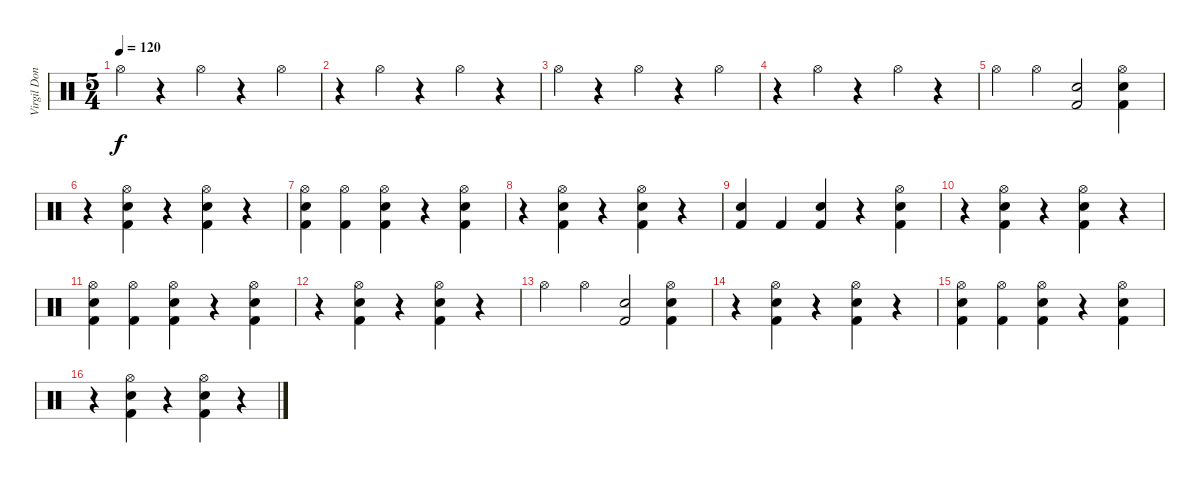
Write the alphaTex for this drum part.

\track ("Virgil Donatti" "Virgil Don") {instrument percussion}
\staff {score}
\articulation defaults
\ts (5 4)
\tempo 120
\clef neutral
\ks c "Hi-Hat (open)".4{dy f}
r.4 "Hi-Hat (open)".4 r.4 "Hi-Hat (open)".4 |
r.4 "Hi-Hat (open)".4 r.4 "Hi-Hat (open)".4 r.4 |
"Hi-Hat (open)".4 r.4 "Hi-Hat (open)".4 r.4 "Hi-Hat (open)".4 |
r.4 "Hi-Hat (open)".4 r.4 "Hi-Hat (open)".4 r.4 |
"Hi-Hat (open)".4 "Hi-Hat (open)".4 ("Snare (hit) 2" "Kick (hit) 2").2 ("Hi-Hat (open)" "Kick (hit) 2" "Snare (hit) 2").4 |
r.4 ("Hi-Hat (open)" "Kick (hit) 2" "Snare (hit) 2").4 r.4 ("Hi-Hat (open)" "Kick (hit) 2" "Snare (hit) 2").4 r.4 |
("Hi-Hat (open)" "Snare (hit) 2" "Kick (hit) 2").4 ("Hi-Hat (open)" "Kick (hit) 2").4 ("Hi-Hat (open)" "Snare (hit) 2" "Kick (hit) 2").4 r.4 ("Hi-Hat (open)" "Snare (hit) 2" "Kick (hit) 2").4 |
r.4 ("Hi-Hat (open)" "Snare (hit) 2" "Kick (hit) 2").4 r.4 ("Hi-Hat (open)" "Snare (hit) 2" "Kick (hit) 2").4 r.4 |
("Snare (hit) 2" "Kick (hit) 2").4 "Kick (hit) 2".4 ("Snare (hit) 2" "Kick (hit) 2").4 r.4 ("Hi-Hat (open)" "Snare (hit) 2" "Kick (hit) 2").4 |
r.4 ("Hi-Hat (open)" "Snare (hit) 2" "Kick (hit) 2").4 r.4 ("Hi-Hat (open)" "Snare (hit) 2" "Kick (hit) 2").4 r.4 |
("Hi-Hat (open)" "Snare (hit) 2" "Kick (hit) 2").4 ("Hi-Hat (open)" "Kick (hit) 2").4 ("Hi-Hat (open)" "Snare (hit) 2" "Kick (hit) 2").4 r.4 ("Hi-Hat (open)" "Snare (hit) 2" "Kick (hit) 2").4 |
r.4 ("Hi-Hat (open)" "Snare (hit) 2" "Kick (hit) 2").4 r.4 ("Hi-Hat (open)" "Snare (hit) 2" "Kick (hit) 2").4 r.4 |
"Hi-Hat (open)".4 "Hi-Hat (open)".4 ("Snare (hit) 2" "Kick (hit) 2").2 ("Hi-Hat (open)" "Kick (hit) 2" "Snare (hit) 2").4 |
r.4 ("Hi-Hat (open)" "Kick (hit) 2" "Snare (hit) 2").4 r.4 ("Hi-Hat (open)" "Kick (hit) 2" "Snare (hit) 2").4 r.4 |
("Hi-Hat (open)" "Snare (hit) 2" "Kick (hit) 2").4 ("Hi-Hat (open)" "Kick (hit) 2").4 ("Hi-Hat (open)" "Snare (hit) 2" "Kick (hit) 2").4 r.4 ("Hi-Hat (open)" "Snare (hit) 2" "Kick (hit) 2").4 |
r.4 ("Hi-Hat (open)" "Snare (hit) 2" "Kick (hit) 2").4 r.4 ("Hi-Hat (open)" "Snare (hit) 2" "Kick (hit) 2").4 r.4
